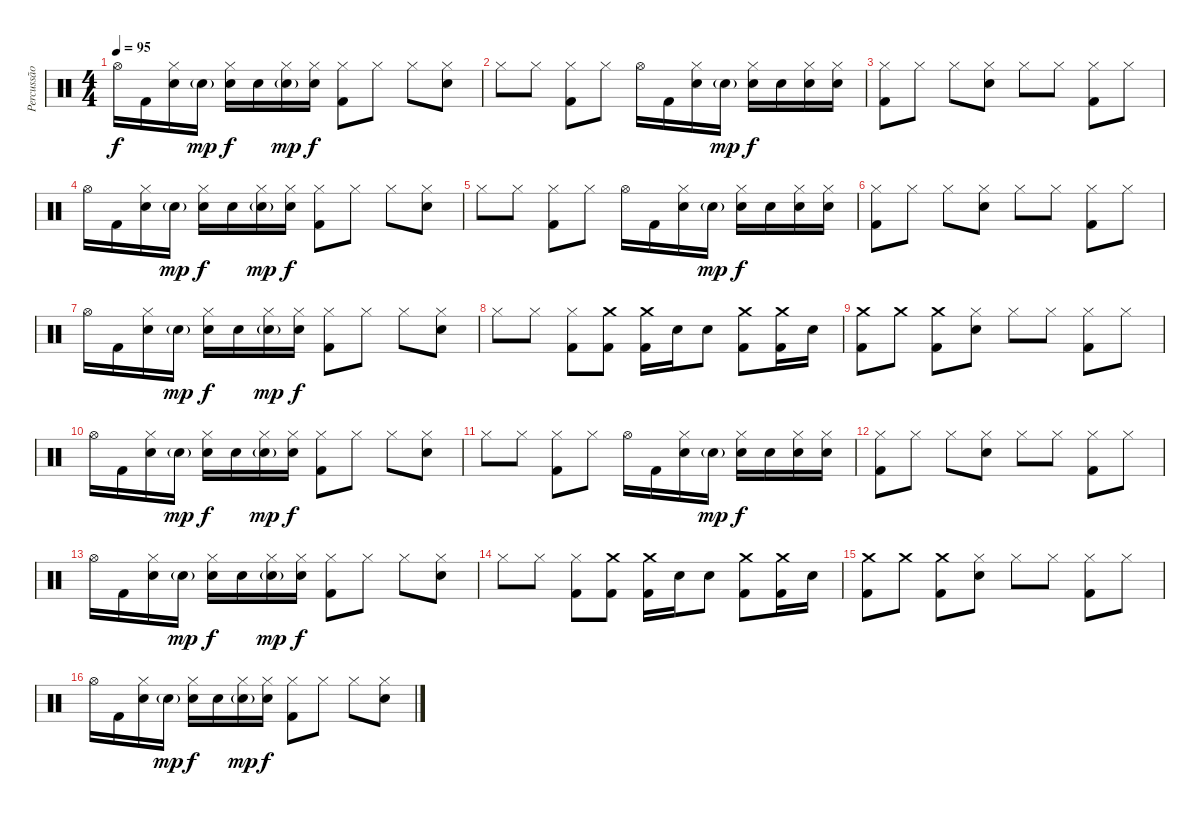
\track ("Percussão" "Percussão") {instrument percussion}
\staff {score}
\articulation defaults
\ts (4 4)
\tempo 95
\clef neutral
\ks c "Hi-Hat (open)".16{dy f} "Kick (hit) 2".16
("Snare (hit) 2" "Hi-Hat (closed)").16 "Electric Snare (hit)"{g}.16{dy mp} ("Electric Snare (hit)" "Hi-Hat (closed)").16{dy f} "Snare (hit) 2".16 ("Electric Snare (hit)"{g} "Hi-Hat (closed)").16{dy mp} ("Snare (hit) 2" "Hi-Hat (closed)").16{dy f} ("Kick (hit) 2" "Hi-Hat (closed)").8 "Hi-Hat (closed)".8 "Hi-Hat (closed)".8 ("Snare (hit) 2" "Hi-Hat (closed)").8 |
"Hi-Hat (closed)".8 "Hi-Hat (closed)".8 ("Kick (hit) 2" "Hi-Hat (closed)").8 "Hi-Hat (closed)".8 "Hi-Hat (open)".16 "Kick (hit) 2".16 ("Snare (hit) 2" "Hi-Hat (closed)").16 "Electric Snare (hit)"{g}.16{dy mp} ("Electric Snare (hit)" "Hi-Hat (closed)").16{dy f} "Snare (hit) 2".16 ("Electric Snare (hit)" "Hi-Hat (closed)").16 ("Snare (hit) 2" "Hi-Hat (closed)").16 |
("Kick (hit) 2" "Hi-Hat (closed)").8 "Hi-Hat (closed)".8 "Hi-Hat (closed)".8 ("Snare (hit) 2" "Hi-Hat (closed)").8 "Hi-Hat (closed)".8 "Hi-Hat (closed)".8 ("Kick (hit) 2" "Hi-Hat (closed)").8 "Hi-Hat (closed)".8 |
"Hi-Hat (open)".16 "Kick (hit) 2".16 ("Snare (hit) 2" "Hi-Hat (closed)").16 "Electric Snare (hit)"{g}.16{dy mp} ("Electric Snare (hit)" "Hi-Hat (closed)").16{dy f} "Snare (hit) 2".16 ("Electric Snare (hit)"{g} "Hi-Hat (closed)").16{dy mp} ("Snare (hit) 2" "Hi-Hat (closed)").16{dy f} ("Kick (hit) 2" "Hi-Hat (closed)").8 "Hi-Hat (closed)".8 "Hi-Hat (closed)".8 ("Snare (hit) 2" "Hi-Hat (closed)").8 |
"Hi-Hat (closed)".8 "Hi-Hat (closed)".8 ("Kick (hit) 2" "Hi-Hat (closed)").8 "Hi-Hat (closed)".8 "Hi-Hat (open)".16 "Kick (hit) 2".16 ("Snare (hit) 2" "Hi-Hat (closed)").16 "Electric Snare (hit)"{g}.16{dy mp} ("Electric Snare (hit)" "Hi-Hat (closed)").16{dy f} "Snare (hit) 2".16 ("Electric Snare (hit)" "Hi-Hat (closed)").16 ("Snare (hit) 2" "Hi-Hat (closed)").16 |
("Kick (hit) 2" "Hi-Hat (closed)").8 "Hi-Hat (closed)".8 "Hi-Hat (closed)".8 ("Snare (hit) 2" "Hi-Hat (closed)").8 "Hi-Hat (closed)".8 "Hi-Hat (closed)".8 ("Kick (hit) 2" "Hi-Hat (closed)").8 "Hi-Hat (closed)".8 |
"Hi-Hat (open)".16 "Kick (hit) 2".16 ("Snare (hit) 2" "Hi-Hat (closed)").16 "Electric Snare (hit)"{g}.16{dy mp} ("Electric Snare (hit)" "Hi-Hat (closed)").16{dy f} "Snare (hit) 2".16 ("Electric Snare (hit)"{g} "Hi-Hat (closed)").16{dy mp} ("Snare (hit) 2" "Hi-Hat (closed)").16{dy f} ("Kick (hit) 2" "Hi-Hat (closed)").8 "Hi-Hat (closed)".8 "Hi-Hat (closed)".8 ("Snare (hit) 2" "Hi-Hat (closed)").8 |
"Hi-Hat (closed)".8 "Hi-Hat (closed)".8 ("Kick (hit) 2" "Hi-Hat (closed)").8 ("Kick (hit) 2" "Crash medium (hit)").8 ("Kick (hit) 2" "Crash medium (hit)").16 "Snare (hit) 2".16 "Electric Snare (hit)".8 ("Kick (hit) 2" "Crash medium (hit)").8 ("Kick (hit) 2" "Crash medium (hit)").16 "Snare (hit) 2".16 |
("Kick (hit) 2" "Crash medium (hit)").8 "Crash medium (hit)".8 ("Kick (hit) 2" "Crash medium (hit)").8 ("Snare (hit) 2" "Hi-Hat (closed)").8 "Hi-Hat (closed)".8 "Hi-Hat (closed)".8 ("Kick (hit) 2" "Hi-Hat (closed)").8 "Hi-Hat (closed)".8 |
"Hi-Hat (open)".16 "Kick (hit) 2".16 ("Snare (hit) 2" "Hi-Hat (closed)").16 "Electric Snare (hit)"{g}.16{dy mp} ("Electric Snare (hit)" "Hi-Hat (closed)").16{dy f} "Snare (hit) 2".16 ("Electric Snare (hit)"{g} "Hi-Hat (closed)").16{dy mp} ("Snare (hit) 2" "Hi-Hat (closed)").16{dy f} ("Kick (hit) 2" "Hi-Hat (closed)").8 "Hi-Hat (closed)".8 "Hi-Hat (closed)".8 ("Snare (hit) 2" "Hi-Hat (closed)").8 |
"Hi-Hat (closed)".8 "Hi-Hat (closed)".8 ("Kick (hit) 2" "Hi-Hat (closed)").8 "Hi-Hat (closed)".8 "Hi-Hat (open)".16 "Kick (hit) 2".16 ("Snare (hit) 2" "Hi-Hat (closed)").16 "Electric Snare (hit)"{g}.16{dy mp} ("Electric Snare (hit)" "Hi-Hat (closed)").16{dy f} "Snare (hit) 2".16 ("Electric Snare (hit)" "Hi-Hat (closed)").16 ("Snare (hit) 2" "Hi-Hat (closed)").16 |
("Kick (hit) 2" "Hi-Hat (closed)").8 "Hi-Hat (closed)".8 "Hi-Hat (closed)".8 ("Snare (hit) 2" "Hi-Hat (closed)").8 "Hi-Hat (closed)".8 "Hi-Hat (closed)".8 ("Kick (hit) 2" "Hi-Hat (closed)").8 "Hi-Hat (closed)".8 |
"Hi-Hat (open)".16 "Kick (hit) 2".16 ("Snare (hit) 2" "Hi-Hat (closed)").16 "Electric Snare (hit)"{g}.16{dy mp} ("Electric Snare (hit)" "Hi-Hat (closed)").16{dy f} "Snare (hit) 2".16 ("Electric Snare (hit)"{g} "Hi-Hat (closed)").16{dy mp} ("Snare (hit) 2" "Hi-Hat (closed)").16{dy f} ("Kick (hit) 2" "Hi-Hat (closed)").8 "Hi-Hat (closed)".8 "Hi-Hat (closed)".8 ("Snare (hit) 2" "Hi-Hat (closed)").8 |
"Hi-Hat (closed)".8 "Hi-Hat (closed)".8 ("Kick (hit) 2" "Hi-Hat (closed)").8 ("Kick (hit) 2" "Crash medium (hit)").8 ("Kick (hit) 2" "Crash medium (hit)").16 "Snare (hit) 2".16 "Electric Snare (hit)".8 ("Kick (hit) 2" "Crash medium (hit)").8 ("Kick (hit) 2" "Crash medium (hit)").16 "Snare (hit) 2".16 |
("Kick (hit) 2" "Crash medium (hit)").8 "Crash medium (hit)".8 ("Kick (hit) 2" "Crash medium (hit)").8 ("Snare (hit) 2" "Hi-Hat (closed)").8 "Hi-Hat (closed)".8 "Hi-Hat (closed)".8 ("Kick (hit) 2" "Hi-Hat (closed)").8 "Hi-Hat (closed)".8 |
"Hi-Hat (open)".16 "Kick (hit) 2".16 ("Snare (hit) 2" "Hi-Hat (closed)").16 "Electric Snare (hit)"{g}.16{dy mp} ("Electric Snare (hit)" "Hi-Hat (closed)").16{dy f} "Snare (hit) 2".16 ("Electric Snare (hit)"{g} "Hi-Hat (closed)").16{dy mp} ("Snare (hit) 2" "Hi-Hat (closed)").16{dy f} ("Kick (hit) 2" "Hi-Hat (closed)").8 "Hi-Hat (closed)".8 "Hi-Hat (closed)".8 ("Snare (hit) 2" "Hi-Hat (closed)").8
